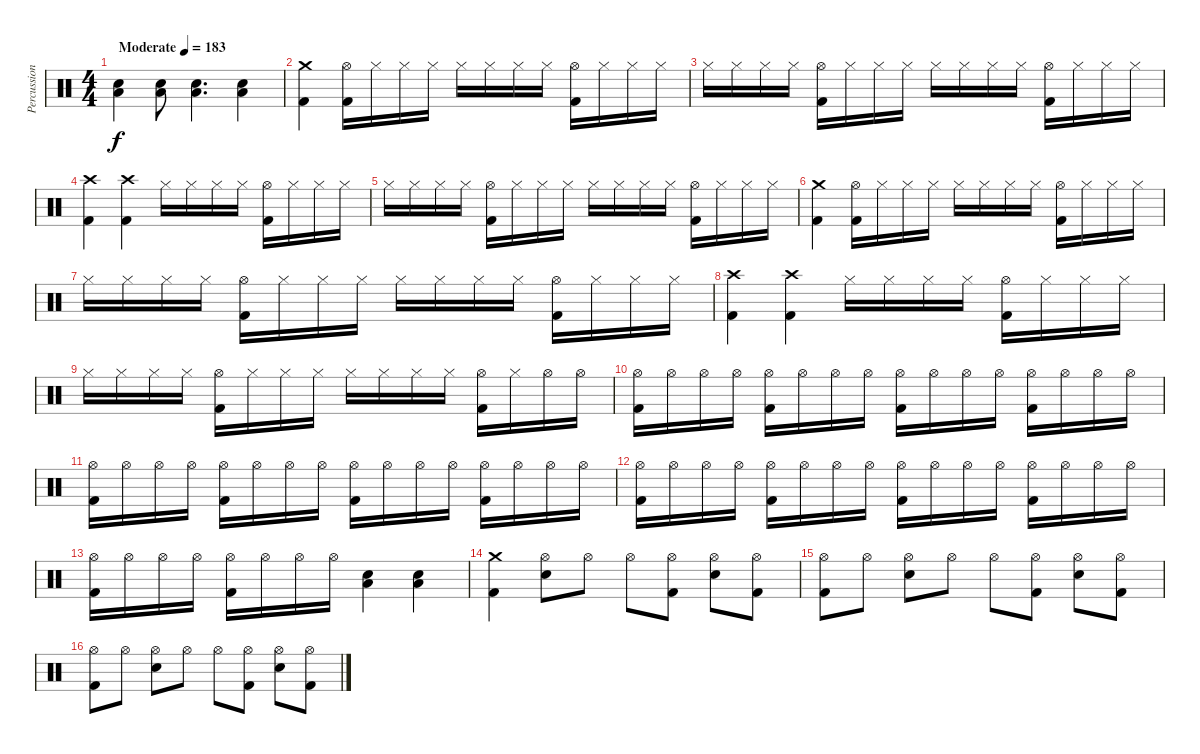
\track ("Percussion" "Percussion") {instrument percussion}
\staff {score}
\articulation defaults
\ts (4 4)
\tempo (183 "Moderate")
\clef neutral
\ks c
("Low Floor Tom (hit)" "Snare (hit) 2").4{dy f} ("Low Floor Tom (hit)" "Snare (hit) 2").8 ("Low Floor Tom (hit)" "Snare (hit) 2").4{d} ("Low Floor Tom (hit)" "Snare (hit) 2").4 |
("Crash medium (hit)" "Kick (hit) 2").4 ("Hi-Hat (open)" "Kick (hit) 2").16 "Hi-Hat (closed)".16 "Hi-Hat (closed)".16 "Hi-Hat (closed)".16 "Hi-Hat (closed)".16 "Hi-Hat (closed)".16 "Hi-Hat (closed)".16 "Hi-Hat (closed)".16 ("Hi-Hat (open)" "Kick (hit) 2").16 "Hi-Hat (closed)".16 "Hi-Hat (closed)".16 "Hi-Hat (closed)".16 |
"Hi-Hat (closed)".16 "Hi-Hat (closed)".16 "Hi-Hat (closed)".16 "Hi-Hat (closed)".16 ("Hi-Hat (open)" "Kick (hit) 2").16 "Hi-Hat (closed)".16 "Hi-Hat (closed)".16 "Hi-Hat (closed)".16 "Hi-Hat (closed)".16 "Hi-Hat (closed)".16 "Hi-Hat (closed)".16 "Hi-Hat (closed)".16 ("Hi-Hat (open)" "Kick (hit) 2").16 "Hi-Hat (closed)".16 "Hi-Hat (closed)".16 "Hi-Hat (closed)".16 |
("Crash high (hit)" "Kick (hit) 2").4 ("Crash high (hit)" "Kick (hit) 2").4 "Hi-Hat (closed)".16 "Hi-Hat (closed)".16 "Hi-Hat (closed)".16 "Hi-Hat (closed)".16 ("Hi-Hat (open)" "Kick (hit) 2").16 "Hi-Hat (closed)".16 "Hi-Hat (closed)".16 "Hi-Hat (closed)".16 |
"Hi-Hat (closed)".16 "Hi-Hat (closed)".16 "Hi-Hat (closed)".16 "Hi-Hat (closed)".16 ("Hi-Hat (open)" "Kick (hit) 2").16 "Hi-Hat (closed)".16 "Hi-Hat (closed)".16 "Hi-Hat (closed)".16 "Hi-Hat (closed)".16 "Hi-Hat (closed)".16 "Hi-Hat (closed)".16 "Hi-Hat (closed)".16 ("Hi-Hat (open)" "Kick (hit) 2").16 "Hi-Hat (closed)".16 "Hi-Hat (closed)".16 "Hi-Hat (closed)".16 |
("Crash medium (hit)" "Kick (hit) 2").4 ("Hi-Hat (open)" "Kick (hit) 2").16 "Hi-Hat (closed)".16 "Hi-Hat (closed)".16 "Hi-Hat (closed)".16 "Hi-Hat (closed)".16 "Hi-Hat (closed)".16 "Hi-Hat (closed)".16 "Hi-Hat (closed)".16 ("Hi-Hat (open)" "Kick (hit) 2").16 "Hi-Hat (closed)".16 "Hi-Hat (closed)".16 "Hi-Hat (closed)".16 |
"Hi-Hat (closed)".16 "Hi-Hat (closed)".16 "Hi-Hat (closed)".16 "Hi-Hat (closed)".16 ("Hi-Hat (open)" "Kick (hit) 2").16 "Hi-Hat (closed)".16 "Hi-Hat (closed)".16 "Hi-Hat (closed)".16 "Hi-Hat (closed)".16 "Hi-Hat (closed)".16 "Hi-Hat (closed)".16 "Hi-Hat (closed)".16 ("Hi-Hat (open)" "Kick (hit) 2").16 "Hi-Hat (closed)".16 "Hi-Hat (closed)".16 "Hi-Hat (closed)".16 |
("Crash high (hit)" "Kick (hit) 2").4 ("Crash high (hit)" "Kick (hit) 2").4 "Hi-Hat (closed)".16 "Hi-Hat (closed)".16 "Hi-Hat (closed)".16 "Hi-Hat (closed)".16 ("Hi-Hat (open)" "Kick (hit) 2").16 "Hi-Hat (closed)".16 "Hi-Hat (closed)".16 "Hi-Hat (closed)".16 |
"Hi-Hat (closed)".16 "Hi-Hat (closed)".16 "Hi-Hat (closed)".16 "Hi-Hat (closed)".16 ("Hi-Hat (open)" "Kick (hit) 2").16 "Hi-Hat (closed)".16 "Hi-Hat (closed)".16 "Hi-Hat (closed)".16 "Hi-Hat (closed)".16 "Hi-Hat (closed)".16 "Hi-Hat (closed)".16 "Hi-Hat (closed)".16 ("Hi-Hat (open)" "Kick (hit) 2").16 "Hi-Hat (closed)".16 "Hi-Hat (open)".16 "Hi-Hat (open)".16 |
("Hi-Hat (open)" "Kick (hit) 2").16 "Hi-Hat (open)".16 "Hi-Hat (open)".16 "Hi-Hat (open)".16 ("Hi-Hat (open)" "Kick (hit) 2").16 "Hi-Hat (open)".16 "Hi-Hat (open)".16 "Hi-Hat (open)".16 ("Hi-Hat (open)" "Kick (hit) 2").16 "Hi-Hat (open)".16 "Hi-Hat (open)".16 "Hi-Hat (open)".16 ("Hi-Hat (open)" "Kick (hit) 2").16 "Hi-Hat (open)".16 "Hi-Hat (open)".16 "Hi-Hat (open)".16 |
("Hi-Hat (open)" "Kick (hit) 2").16 "Hi-Hat (open)".16 "Hi-Hat (open)".16 "Hi-Hat (open)".16 ("Hi-Hat (open)" "Kick (hit) 2").16 "Hi-Hat (open)".16 "Hi-Hat (open)".16 "Hi-Hat (open)".16 ("Hi-Hat (open)" "Kick (hit) 2").16 "Hi-Hat (open)".16 "Hi-Hat (open)".16 "Hi-Hat (open)".16 ("Hi-Hat (open)" "Kick (hit) 2").16 "Hi-Hat (open)".16 "Hi-Hat (open)".16 "Hi-Hat (open)".16 |
("Hi-Hat (open)" "Kick (hit) 2").16 "Hi-Hat (open)".16 "Hi-Hat (open)".16 "Hi-Hat (open)".16 ("Hi-Hat (open)" "Kick (hit) 2").16 "Hi-Hat (open)".16 "Hi-Hat (open)".16 "Hi-Hat (open)".16 ("Hi-Hat (open)" "Kick (hit) 2").16 "Hi-Hat (open)".16 "Hi-Hat (open)".16 "Hi-Hat (open)".16 ("Hi-Hat (open)" "Kick (hit) 2").16 "Hi-Hat (open)".16 "Hi-Hat (open)".16 "Hi-Hat (open)".16 |
("Hi-Hat (open)" "Kick (hit) 2").16 "Hi-Hat (open)".16 "Hi-Hat (open)".16 "Hi-Hat (open)".16 ("Hi-Hat (open)" "Kick (hit) 2").16 "Hi-Hat (open)".16 "Hi-Hat (open)".16 "Hi-Hat (open)".16 ("Low Floor Tom (hit)" "Snare (hit) 2").4 ("Low Floor Tom (hit)" "Snare (hit) 2").4 |
("Crash medium (hit)" "Kick (hit) 2").4 ("Hi-Hat (open)" "Snare (hit) 2").8 "Hi-Hat (open)".8 "Hi-Hat (open)".8 ("Hi-Hat (open)" "Kick (hit) 2").8 ("Hi-Hat (open)" "Snare (hit) 2").8 ("Hi-Hat (open)" "Kick (hit) 2").8 |
("Hi-Hat (open)" "Kick (hit) 2").8 "Hi-Hat (open)".8 ("Hi-Hat (open)" "Snare (hit) 2").8 "Hi-Hat (open)".8 "Hi-Hat (open)".8 ("Hi-Hat (open)" "Kick (hit) 2").8 ("Hi-Hat (open)" "Snare (hit) 2").8 ("Hi-Hat (open)" "Kick (hit) 2").8 |
("Hi-Hat (open)" "Kick (hit) 2").8 "Hi-Hat (open)".8 ("Hi-Hat (open)" "Snare (hit) 2").8 "Hi-Hat (open)".8 "Hi-Hat (open)".8 ("Hi-Hat (open)" "Kick (hit) 2").8 ("Hi-Hat (open)" "Snare (hit) 2").8 ("Hi-Hat (open)" "Kick (hit) 2").8
